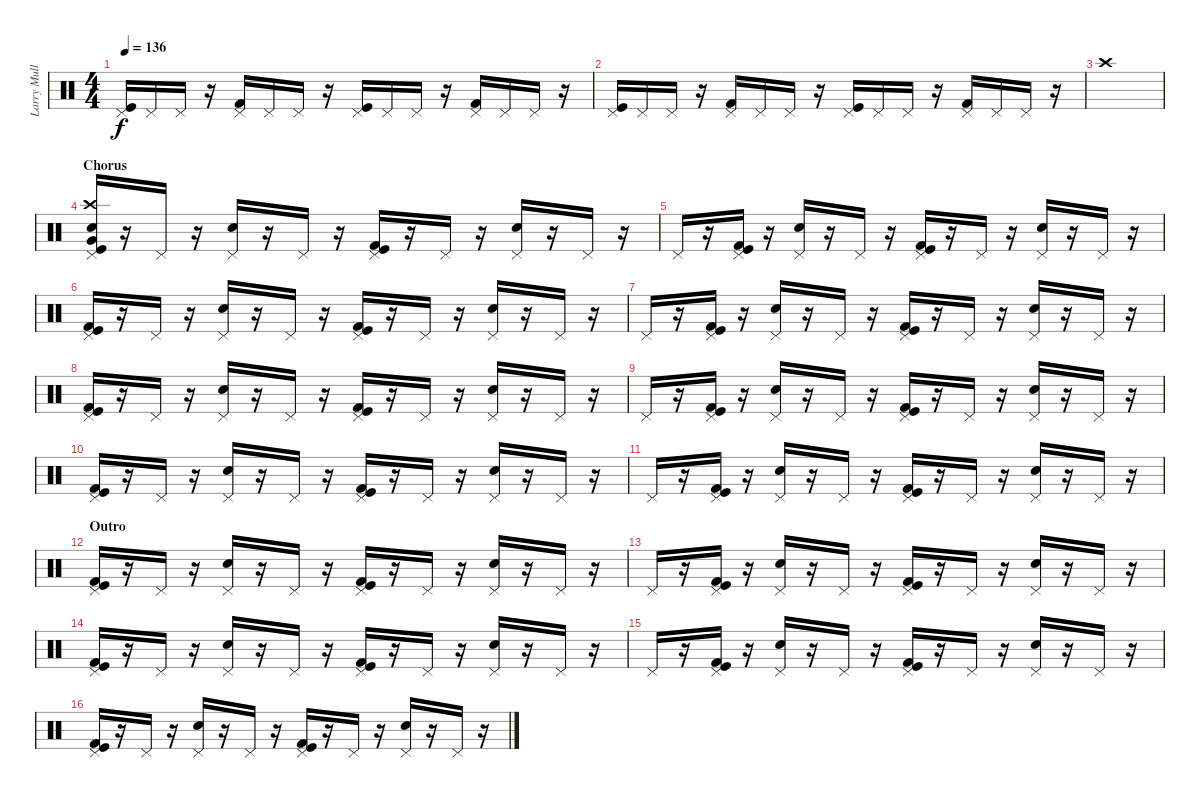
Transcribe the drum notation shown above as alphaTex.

\track ("Larry Mullen Jr." "Larry Mull") {instrument percussion}
\staff {score}
\articulation defaults
\ts (4 4)
\tempo 136
\clef neutral
\ks c
("Kick (hit)" "Pedal Hi-Hat (hit)").16{dy f} "Pedal Hi-Hat (hit)".16 "Pedal Hi-Hat (hit)".16 r.16 ("Kick (hit) 2" "Pedal Hi-Hat (hit)").16 "Pedal Hi-Hat (hit)".16 "Pedal Hi-Hat (hit)".16 r.16 ("Kick (hit)" "Pedal Hi-Hat (hit)").16 "Pedal Hi-Hat (hit)".16 "Pedal Hi-Hat (hit)".16 r.16 ("Kick (hit) 2" "Pedal Hi-Hat (hit)").16 "Pedal Hi-Hat (hit)".16 "Pedal Hi-Hat (hit)".16 r.16 |
("Kick (hit)" "Pedal Hi-Hat (hit)").16 "Pedal Hi-Hat (hit)".16 "Pedal Hi-Hat (hit)".16 r.16 ("Kick (hit) 2" "Pedal Hi-Hat (hit)").16 "Pedal Hi-Hat (hit)".16 "Pedal Hi-Hat (hit)".16 r.16 ("Kick (hit)" "Pedal Hi-Hat (hit)").16 "Pedal Hi-Hat (hit)".16 "Pedal Hi-Hat (hit)".16 r.16 ("Kick (hit) 2" "Pedal Hi-Hat (hit)").16 "Pedal Hi-Hat (hit)".16 "Pedal Hi-Hat (hit)".16 r.16 |
"Crash high (hit)".1 |
\section ("" "Chorus")
("Very Low Tom (hit)" "Snare (hit) 2" "Kick (hit)" "Crash high (hit)" "Pedal Hi-Hat (hit)").16 r.16 "Pedal Hi-Hat (hit)".16 r.16 ("Snare (hit) 2" "Pedal Hi-Hat (hit)").16 r.16 "Pedal Hi-Hat (hit)".16 r.16 ("Kick (hit) 2" "Kick (hit)" "Pedal Hi-Hat (hit)").16 r.16 "Pedal Hi-Hat (hit)".16 r.16 ("Snare (hit) 2" "Pedal Hi-Hat (hit)").16 r.16 "Pedal Hi-Hat (hit)".16 r.16 |
"Pedal Hi-Hat (hit)".16 r.16 ("Kick (hit) 2" "Kick (hit)" "Pedal Hi-Hat (hit)").16 r.16 ("Snare (hit) 2" "Pedal Hi-Hat (hit)").16 r.16 "Pedal Hi-Hat (hit)".16 r.16 ("Kick (hit) 2" "Kick (hit)" "Pedal Hi-Hat (hit)").16 r.16 "Pedal Hi-Hat (hit)".16 r.16 ("Snare (hit) 2" "Pedal Hi-Hat (hit)").16 r.16 "Pedal Hi-Hat (hit)".16 r.16 |
("Kick (hit) 2" "Kick (hit)" "Pedal Hi-Hat (hit)").16 r.16 "Pedal Hi-Hat (hit)".16 r.16 ("Snare (hit) 2" "Pedal Hi-Hat (hit)").16 r.16 "Pedal Hi-Hat (hit)".16 r.16 ("Kick (hit) 2" "Kick (hit)" "Pedal Hi-Hat (hit)").16 r.16 "Pedal Hi-Hat (hit)".16 r.16 ("Snare (hit) 2" "Pedal Hi-Hat (hit)").16 r.16 "Pedal Hi-Hat (hit)".16 r.16 |
"Pedal Hi-Hat (hit)".16 r.16 ("Kick (hit) 2" "Kick (hit)" "Pedal Hi-Hat (hit)").16 r.16 ("Snare (hit) 2" "Pedal Hi-Hat (hit)").16 r.16 "Pedal Hi-Hat (hit)".16 r.16 ("Kick (hit) 2" "Kick (hit)" "Pedal Hi-Hat (hit)").16 r.16 "Pedal Hi-Hat (hit)".16 r.16 ("Snare (hit) 2" "Pedal Hi-Hat (hit)").16 r.16 "Pedal Hi-Hat (hit)".16 r.16 |
("Kick (hit) 2" "Kick (hit)" "Pedal Hi-Hat (hit)").16 r.16 "Pedal Hi-Hat (hit)".16 r.16 ("Snare (hit) 2" "Pedal Hi-Hat (hit)").16 r.16 "Pedal Hi-Hat (hit)".16 r.16 ("Kick (hit) 2" "Kick (hit)" "Pedal Hi-Hat (hit)").16 r.16 "Pedal Hi-Hat (hit)".16 r.16 ("Snare (hit) 2" "Pedal Hi-Hat (hit)").16 r.16 "Pedal Hi-Hat (hit)".16 r.16 |
"Pedal Hi-Hat (hit)".16 r.16 ("Kick (hit) 2" "Kick (hit)" "Pedal Hi-Hat (hit)").16 r.16 ("Snare (hit) 2" "Pedal Hi-Hat (hit)").16 r.16 "Pedal Hi-Hat (hit)".16 r.16 ("Kick (hit) 2" "Kick (hit)" "Pedal Hi-Hat (hit)").16 r.16 "Pedal Hi-Hat (hit)".16 r.16 ("Snare (hit) 2" "Pedal Hi-Hat (hit)").16 r.16 "Pedal Hi-Hat (hit)".16 r.16 |
("Kick (hit) 2" "Kick (hit)" "Pedal Hi-Hat (hit)").16 r.16 "Pedal Hi-Hat (hit)".16 r.16 ("Snare (hit) 2" "Pedal Hi-Hat (hit)").16 r.16 "Pedal Hi-Hat (hit)".16 r.16 ("Kick (hit) 2" "Kick (hit)" "Pedal Hi-Hat (hit)").16 r.16 "Pedal Hi-Hat (hit)".16 r.16 ("Snare (hit) 2" "Pedal Hi-Hat (hit)").16 r.16 "Pedal Hi-Hat (hit)".16 r.16 |
"Pedal Hi-Hat (hit)".16 r.16 ("Kick (hit) 2" "Kick (hit)" "Pedal Hi-Hat (hit)").16 r.16 ("Snare (hit) 2" "Pedal Hi-Hat (hit)").16 r.16 "Pedal Hi-Hat (hit)".16 r.16 ("Kick (hit) 2" "Kick (hit)" "Pedal Hi-Hat (hit)").16 r.16 "Pedal Hi-Hat (hit)".16 r.16 ("Snare (hit) 2" "Pedal Hi-Hat (hit)").16 r.16 "Pedal Hi-Hat (hit)".16 r.16 |
\section ("" "Outro")
("Kick (hit) 2" "Kick (hit)" "Pedal Hi-Hat (hit)").16 r.16 "Pedal Hi-Hat (hit)".16 r.16 ("Snare (hit) 2" "Pedal Hi-Hat (hit)").16 r.16 "Pedal Hi-Hat (hit)".16 r.16 ("Kick (hit) 2" "Kick (hit)" "Pedal Hi-Hat (hit)").16 r.16 "Pedal Hi-Hat (hit)".16 r.16 ("Snare (hit) 2" "Pedal Hi-Hat (hit)").16 r.16 "Pedal Hi-Hat (hit)".16 r.16 |
"Pedal Hi-Hat (hit)".16 r.16 ("Kick (hit) 2" "Kick (hit)" "Pedal Hi-Hat (hit)").16 r.16 ("Snare (hit) 2" "Pedal Hi-Hat (hit)").16 r.16 "Pedal Hi-Hat (hit)".16 r.16 ("Kick (hit) 2" "Kick (hit)" "Pedal Hi-Hat (hit)").16 r.16 "Pedal Hi-Hat (hit)".16 r.16 ("Snare (hit) 2" "Pedal Hi-Hat (hit)").16 r.16 "Pedal Hi-Hat (hit)".16 r.16 |
("Kick (hit) 2" "Kick (hit)" "Pedal Hi-Hat (hit)").16 r.16 "Pedal Hi-Hat (hit)".16 r.16 ("Snare (hit) 2" "Pedal Hi-Hat (hit)").16 r.16 "Pedal Hi-Hat (hit)".16 r.16 ("Kick (hit) 2" "Kick (hit)" "Pedal Hi-Hat (hit)").16 r.16 "Pedal Hi-Hat (hit)".16 r.16 ("Snare (hit) 2" "Pedal Hi-Hat (hit)").16 r.16 "Pedal Hi-Hat (hit)".16 r.16 |
"Pedal Hi-Hat (hit)".16 r.16 ("Kick (hit) 2" "Kick (hit)" "Pedal Hi-Hat (hit)").16 r.16 ("Snare (hit) 2" "Pedal Hi-Hat (hit)").16 r.16 "Pedal Hi-Hat (hit)".16 r.16 ("Kick (hit) 2" "Kick (hit)" "Pedal Hi-Hat (hit)").16 r.16 "Pedal Hi-Hat (hit)".16 r.16 ("Snare (hit) 2" "Pedal Hi-Hat (hit)").16 r.16 "Pedal Hi-Hat (hit)".16 r.16 |
("Kick (hit) 2" "Kick (hit)" "Pedal Hi-Hat (hit)").16 r.16 "Pedal Hi-Hat (hit)".16 r.16 ("Snare (hit) 2" "Pedal Hi-Hat (hit)").16 r.16 "Pedal Hi-Hat (hit)".16 r.16 ("Kick (hit) 2" "Kick (hit)" "Pedal Hi-Hat (hit)").16 r.16 "Pedal Hi-Hat (hit)".16 r.16 ("Snare (hit) 2" "Pedal Hi-Hat (hit)").16 r.16 "Pedal Hi-Hat (hit)".16 r.16
